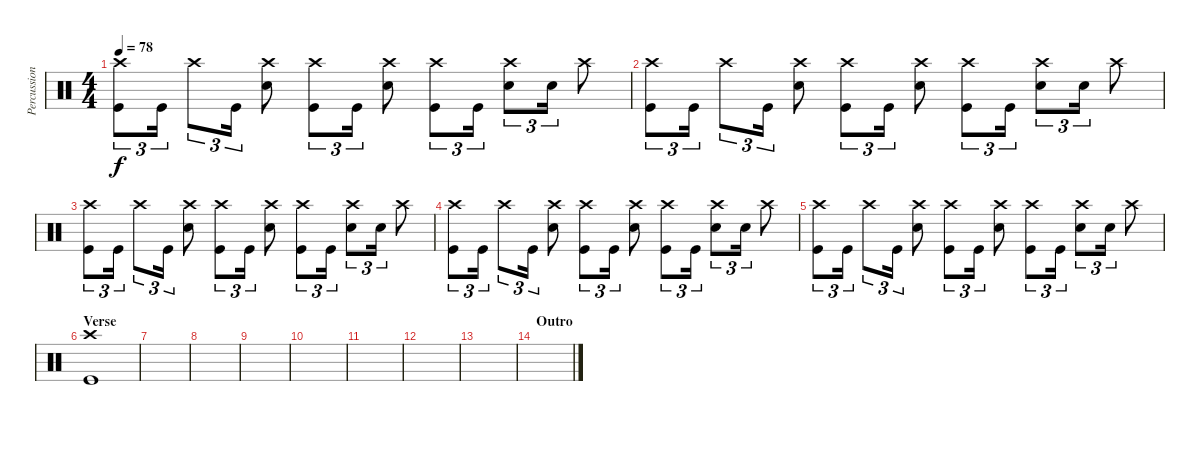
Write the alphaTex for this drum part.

\track ("Percussion" "Percussion") {instrument percussion}
\staff {score}
\articulation defaults
\ts (4 4)
\tempo 78
\clef neutral
\ks c
("Crash high (hit)" "Kick (hit)").8{tu (3 2) dy f} "Kick (hit)".16{tu (3 2)} "Crash high (hit)".8{tu (3 2)} "Kick (hit)".16{tu (3 2)} ("Crash high (hit)" "Snare (hit) 2").8 ("Crash high (hit)" "Kick (hit)").8{tu (3 2)} "Kick (hit)".16{tu (3 2)} ("Crash high (hit)" "Snare (hit) 2").8 ("Crash high (hit)" "Kick (hit)").8{tu (3 2)} "Kick (hit)".16{tu (3 2)} ("Crash high (hit)" "Snare (hit) 2").8{tu (3 2)} "Snare (hit) 2".16{tu (3 2)} "Crash high (hit)".8 |
("Crash high (hit)" "Kick (hit)").8{tu (3 2)} "Kick (hit)".16{tu (3 2)} "Crash high (hit)".8{tu (3 2)} "Kick (hit)".16{tu (3 2)} ("Crash high (hit)" "Snare (hit) 2").8 ("Crash high (hit)" "Kick (hit)").8{tu (3 2)} "Kick (hit)".16{tu (3 2)} ("Crash high (hit)" "Snare (hit) 2").8 ("Crash high (hit)" "Kick (hit)").8{tu (3 2)} "Kick (hit)".16{tu (3 2)} ("Crash high (hit)" "Snare (hit) 2").8{tu (3 2)} "Snare (hit) 2".16{tu (3 2)} "Crash high (hit)".8 |
("Crash high (hit)" "Kick (hit)").8{tu (3 2)} "Kick (hit)".16{tu (3 2)} "Crash high (hit)".8{tu (3 2)} "Kick (hit)".16{tu (3 2)} ("Crash high (hit)" "Snare (hit) 2").8 ("Crash high (hit)" "Kick (hit)").8{tu (3 2)} "Kick (hit)".16{tu (3 2)} ("Crash high (hit)" "Snare (hit) 2").8 ("Crash high (hit)" "Kick (hit)").8{tu (3 2)} "Kick (hit)".16{tu (3 2)} ("Crash high (hit)" "Snare (hit) 2").8{tu (3 2)} "Snare (hit) 2".16{tu (3 2)} "Crash high (hit)".8 |
("Crash high (hit)" "Kick (hit)").8{tu (3 2)} "Kick (hit)".16{tu (3 2)} "Crash high (hit)".8{tu (3 2)} "Kick (hit)".16{tu (3 2)} ("Crash high (hit)" "Snare (hit) 2").8 ("Crash high (hit)" "Kick (hit)").8{tu (3 2)} "Kick (hit)".16{tu (3 2)} ("Crash high (hit)" "Snare (hit) 2").8 ("Crash high (hit)" "Kick (hit)").8{tu (3 2)} "Kick (hit)".16{tu (3 2)} ("Crash high (hit)" "Snare (hit) 2").8{tu (3 2)} "Snare (hit) 2".16{tu (3 2)} "Crash high (hit)".8 |
("Crash high (hit)" "Kick (hit)").8{tu (3 2)} "Kick (hit)".16{tu (3 2)} "Crash high (hit)".8{tu (3 2)} "Kick (hit)".16{tu (3 2)} ("Crash high (hit)" "Snare (hit) 2").8 ("Crash high (hit)" "Kick (hit)").8{tu (3 2)} "Kick (hit)".16{tu (3 2)} ("Crash high (hit)" "Snare (hit) 2").8 ("Crash high (hit)" "Kick (hit)").8{tu (3 2)} "Kick (hit)".16{tu (3 2)} ("Crash high (hit)" "Snare (hit) 2").8{tu (3 2)} "Snare (hit) 2".16{tu (3 2)} "Crash high (hit)".8 |
\section ("" "Verse")
("Crash high (hit)" "Kick (hit)").1 |
|
|
|
|
|
|
|
\section ("" "Outro")
